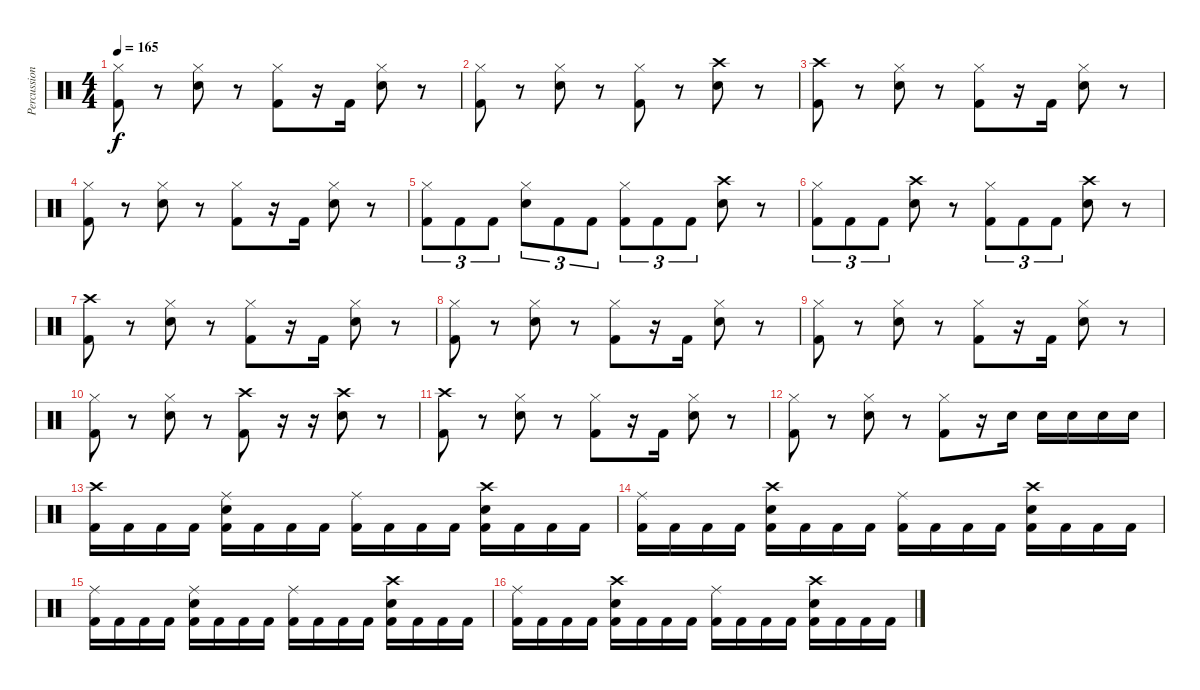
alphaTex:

\track ("Percussion" "Percussion") {instrument percussion}
\staff {score}
\articulation defaults
\ts (4 4)
\tempo 165
\clef neutral
\ks c
("Hi-Hat (closed)" "Kick (hit) 2").8{dy f} r.8 ("Hi-Hat (closed)" "Snare (hit) 2").8 r.8 ("Hi-Hat (closed)" "Kick (hit) 2").8 r.16 "Kick (hit) 2".16 ("Hi-Hat (closed)" "Snare (hit) 2").8 r.8 |
("Hi-Hat (closed)" "Kick (hit) 2").8 r.8 ("Hi-Hat (closed)" "Snare (hit) 2").8 r.8 ("Hi-Hat (closed)" "Kick (hit) 2").8 r.8 ("Crash high (hit)" "Snare (hit) 2").8 r.8 |
("Crash high (hit)" "Kick (hit) 2").8 r.8 ("Hi-Hat (closed)" "Snare (hit) 2").8 r.8 ("Hi-Hat (closed)" "Kick (hit) 2").8 r.16 "Kick (hit) 2".16 ("Hi-Hat (closed)" "Snare (hit) 2").8 r.8 |
("Hi-Hat (closed)" "Kick (hit) 2").8 r.8 ("Hi-Hat (closed)" "Snare (hit) 2").8 r.8 ("Hi-Hat (closed)" "Kick (hit) 2").8 r.16 "Kick (hit) 2".16 ("Hi-Hat (closed)" "Snare (hit) 2").8 r.8 |
("Hi-Hat (closed)" "Kick (hit) 2").8{tu (3 2)} "Kick (hit) 2".8{tu (3 2)} "Kick (hit) 2".8{tu (3 2)} ("Hi-Hat (closed)" "Snare (hit) 2").8{tu (3 2)} "Kick (hit) 2".8{tu (3 2)} "Kick (hit) 2".8{tu (3 2)} ("Hi-Hat (closed)" "Kick (hit) 2").8{tu (3 2)} "Kick (hit) 2".8{tu (3 2)} "Kick (hit) 2".8{tu (3 2)} ("Crash high (hit)" "Snare (hit) 2").8 r.8 |
("Hi-Hat (closed)" "Kick (hit) 2").8{tu (3 2)} "Kick (hit) 2".8{tu (3 2)} "Kick (hit) 2".8{tu (3 2)} ("Crash high (hit)" "Snare (hit) 2").8 r.8 ("Hi-Hat (closed)" "Kick (hit) 2").8{tu (3 2)} "Kick (hit) 2".8{tu (3 2)} "Kick (hit) 2".8{tu (3 2)} ("Crash high (hit)" "Snare (hit) 2").8 r.8 |
("Crash high (hit)" "Kick (hit) 2").8 r.8 ("Hi-Hat (closed)" "Snare (hit) 2").8 r.8 ("Hi-Hat (closed)" "Kick (hit) 2").8 r.16 "Kick (hit) 2".16 ("Hi-Hat (closed)" "Snare (hit) 2").8 r.8 |
("Hi-Hat (closed)" "Kick (hit) 2").8 r.8 ("Hi-Hat (closed)" "Snare (hit) 2").8 r.8 ("Hi-Hat (closed)" "Kick (hit) 2").8 r.16 "Kick (hit) 2".16 ("Hi-Hat (closed)" "Snare (hit) 2").8 r.8 |
("Hi-Hat (closed)" "Kick (hit) 2").8 r.8 ("Hi-Hat (closed)" "Snare (hit) 2").8 r.8 ("Hi-Hat (closed)" "Kick (hit) 2").8 r.16 "Kick (hit) 2".16 ("Hi-Hat (closed)" "Snare (hit) 2").8 r.8 |
("Hi-Hat (closed)" "Kick (hit) 2").8 r.8 ("Hi-Hat (closed)" "Snare (hit) 2").8 r.8 ("Crash high (hit)" "Kick (hit) 2").8 r.16 r.16 ("Crash high (hit)" "Snare (hit) 2").8 r.8 |
("Crash high (hit)" "Kick (hit) 2").8 r.8 ("Hi-Hat (closed)" "Snare (hit) 2").8 r.8 ("Hi-Hat (closed)" "Kick (hit) 2").8 r.16 "Kick (hit) 2".16 ("Hi-Hat (closed)" "Snare (hit) 2").8 r.8 |
("Hi-Hat (closed)" "Kick (hit) 2").8 r.8 ("Hi-Hat (closed)" "Snare (hit) 2").8 r.8 ("Hi-Hat (closed)" "Kick (hit) 2").8 r.16 "Snare (hit) 2".16 "Snare (hit) 2".16 "Snare (hit) 2".16 "Snare (hit) 2".16 "Snare (hit) 2".16 |
("Crash high (hit)" "Kick (hit) 2").16 "Kick (hit) 2".16 "Kick (hit) 2".16 "Kick (hit) 2".16 ("Ride (middle)" "Snare (hit) 2" "Kick (hit) 2").16 "Kick (hit) 2".16 "Kick (hit) 2".16 "Kick (hit) 2".16 ("Ride (middle)" "Kick (hit) 2").16 "Kick (hit) 2".16 "Kick (hit) 2".16 "Kick (hit) 2".16 ("Crash high (hit)" "Snare (hit) 2" "Kick (hit) 2").16 "Kick (hit) 2".16 "Kick (hit) 2".16 "Kick (hit) 2".16 |
("Ride (middle)" "Kick (hit) 2").16 "Kick (hit) 2".16 "Kick (hit) 2".16 "Kick (hit) 2".16 ("Crash high (hit)" "Snare (hit) 2" "Kick (hit) 2").16 "Kick (hit) 2".16 "Kick (hit) 2".16 "Kick (hit) 2".16 ("Ride (middle)" "Kick (hit) 2").16 "Kick (hit) 2".16 "Kick (hit) 2".16 "Kick (hit) 2".16 ("Crash high (hit)" "Snare (hit) 2" "Kick (hit) 2").16 "Kick (hit) 2".16 "Kick (hit) 2".16 "Kick (hit) 2".16 |
("Ride (middle)" "Kick (hit) 2").16 "Kick (hit) 2".16 "Kick (hit) 2".16 "Kick (hit) 2".16 ("Ride (middle)" "Snare (hit) 2" "Kick (hit) 2").16 "Kick (hit) 2".16 "Kick (hit) 2".16 "Kick (hit) 2".16 ("Ride (middle)" "Kick (hit) 2").16 "Kick (hit) 2".16 "Kick (hit) 2".16 "Kick (hit) 2".16 ("Crash high (hit)" "Snare (hit) 2" "Kick (hit) 2").16 "Kick (hit) 2".16 "Kick (hit) 2".16 "Kick (hit) 2".16 |
("Ride (middle)" "Kick (hit) 2").16 "Kick (hit) 2".16 "Kick (hit) 2".16 "Kick (hit) 2".16 ("Crash high (hit)" "Snare (hit) 2" "Kick (hit) 2").16 "Kick (hit) 2".16 "Kick (hit) 2".16 "Kick (hit) 2".16 ("Ride (middle)" "Kick (hit) 2").16 "Kick (hit) 2".16 "Kick (hit) 2".16 "Kick (hit) 2".16 ("Crash high (hit)" "Snare (hit) 2" "Kick (hit) 2").16 "Kick (hit) 2".16 "Kick (hit) 2".16 "Kick (hit) 2".16
